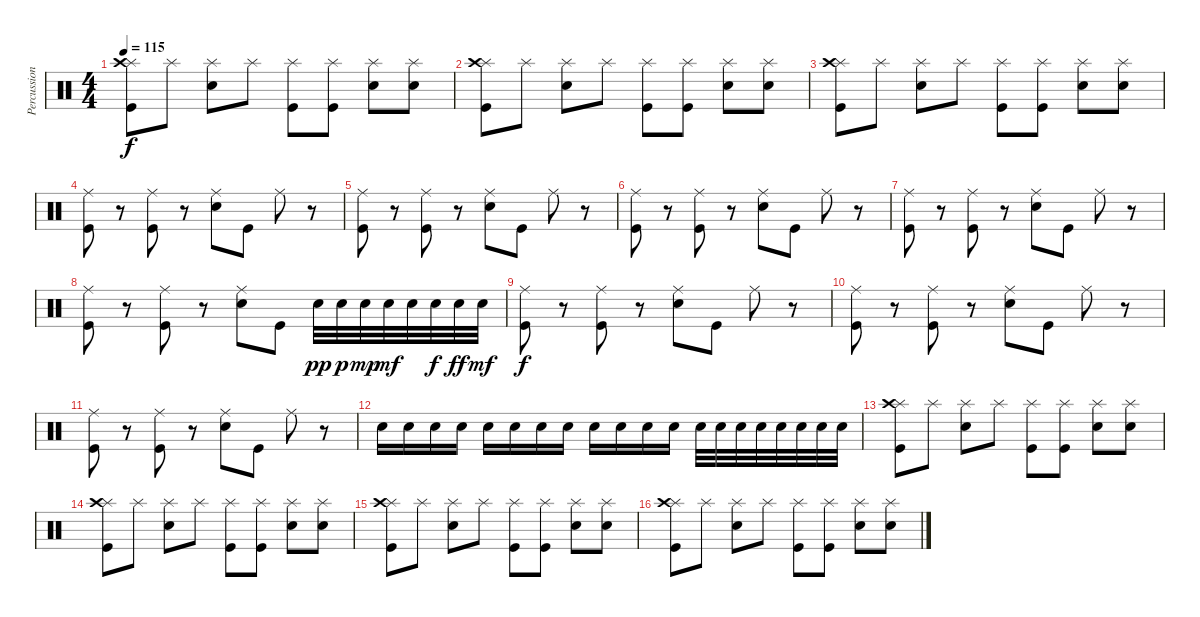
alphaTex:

\track ("Percussions" "Percussion") {instrument percussion}
\staff {score}
\articulation defaults
\ts (4 4)
\tempo 115
\clef neutral
\ks c
("Splash (hit)" "Crash high (hit)" "Kick (hit)").8{dy f} "Splash (hit)".8 ("Splash (hit)" "Electric Snare (hit)").8 "Splash (hit)".8 ("Splash (hit)" "Kick (hit)").8 ("Splash (hit)" "Kick (hit)").8 ("Splash (hit)" "Electric Snare (hit)").8 ("Splash (hit)" "Electric Snare (hit)").8 |
("Splash (hit)" "Crash high (hit)" "Kick (hit)").8 "Splash (hit)".8 ("Splash (hit)" "Electric Snare (hit)").8 "Splash (hit)".8 ("Splash (hit)" "Kick (hit)").8 ("Splash (hit)" "Kick (hit)").8 ("Splash (hit)" "Electric Snare (hit)").8 ("Splash (hit)" "Electric Snare (hit)").8 |
("Splash (hit)" "Crash high (hit)" "Kick (hit)").8 "Splash (hit)".8 ("Splash (hit)" "Electric Snare (hit)").8 "Splash (hit)".8 ("Splash (hit)" "Kick (hit)").8 ("Splash (hit)" "Kick (hit)").8 ("Splash (hit)" "Electric Snare (hit)").8 ("Splash (hit)" "Electric Snare (hit)").8 |
("Ride (middle)" "Kick (hit)").8 r.8 ("Ride (middle)" "Kick (hit)").8 r.8 ("Ride (middle)" "Electric Snare (hit)").8 "Kick (hit)".8 "Ride (middle)".8 r.8 |
("Ride (middle)" "Kick (hit)").8 r.8 ("Ride (middle)" "Kick (hit)").8 r.8 ("Ride (middle)" "Electric Snare (hit)").8 "Kick (hit)".8 "Ride (middle)".8 r.8 |
("Ride (middle)" "Kick (hit)").8 r.8 ("Ride (middle)" "Kick (hit)").8 r.8 ("Ride (middle)" "Electric Snare (hit)").8 "Kick (hit)".8 "Ride (middle)".8 r.8 |
("Ride (middle)" "Kick (hit)").8 r.8 ("Ride (middle)" "Kick (hit)").8 r.8 ("Ride (middle)" "Electric Snare (hit)").8 "Kick (hit)".8 "Ride (middle)".8 r.8 |
("Ride (middle)" "Kick (hit)").8 r.8 ("Ride (middle)" "Kick (hit)").8 r.8 ("Ride (middle)" "Electric Snare (hit)").8 "Kick (hit)".8 "Electric Snare (hit)".32{dy pp} "Electric Snare (hit)".32{dy p} "Electric Snare (hit)".32{dy mp} "Electric Snare (hit)".32{dy mf} "Electric Snare (hit)".32 "Electric Snare (hit)".32{dy f} "Electric Snare (hit)".32{dy ff} "Electric Snare (hit)".32{dy mf} |
("Ride (middle)" "Kick (hit)").8{dy f} r.8 ("Ride (middle)" "Kick (hit)").8 r.8 ("Ride (middle)" "Electric Snare (hit)").8 "Kick (hit)".8 "Ride (middle)".8 r.8 |
("Ride (middle)" "Kick (hit)").8 r.8 ("Ride (middle)" "Kick (hit)").8 r.8 ("Ride (middle)" "Electric Snare (hit)").8 "Kick (hit)".8 "Ride (middle)".8 r.8 |
("Ride (middle)" "Kick (hit)").8 r.8 ("Ride (middle)" "Kick (hit)").8 r.8 ("Ride (middle)" "Electric Snare (hit)").8 "Kick (hit)".8 "Ride (middle)".8 r.8 |
"Electric Snare (hit)".16 "Electric Snare (hit)".16 "Electric Snare (hit)".16 "Electric Snare (hit)".16 "Electric Snare (hit)".16 "Electric Snare (hit)".16 "Electric Snare (hit)".16 "Electric Snare (hit)".16 "Electric Snare (hit)".16 "Electric Snare (hit)".16 "Electric Snare (hit)".16 "Electric Snare (hit)".16 "Electric Snare (hit)".32 "Electric Snare (hit)".32 "Electric Snare (hit)".32 "Electric Snare (hit)".32 "Electric Snare (hit)".32 "Electric Snare (hit)".32 "Electric Snare (hit)".32 "Electric Snare (hit)".32 |
("Splash (hit)" "Crash high (hit)" "Kick (hit)").8 "Splash (hit)".8 ("Splash (hit)" "Electric Snare (hit)").8 "Splash (hit)".8 ("Splash (hit)" "Kick (hit)").8 ("Splash (hit)" "Kick (hit)").8 ("Splash (hit)" "Electric Snare (hit)").8 ("Splash (hit)" "Electric Snare (hit)").8 |
("Splash (hit)" "Crash high (hit)" "Kick (hit)").8 "Splash (hit)".8 ("Splash (hit)" "Electric Snare (hit)").8 "Splash (hit)".8 ("Splash (hit)" "Kick (hit)").8 ("Splash (hit)" "Kick (hit)").8 ("Splash (hit)" "Electric Snare (hit)").8 ("Splash (hit)" "Electric Snare (hit)").8 |
("Splash (hit)" "Crash high (hit)" "Kick (hit)").8 "Splash (hit)".8 ("Splash (hit)" "Electric Snare (hit)").8 "Splash (hit)".8 ("Splash (hit)" "Kick (hit)").8 ("Splash (hit)" "Kick (hit)").8 ("Splash (hit)" "Electric Snare (hit)").8 ("Splash (hit)" "Electric Snare (hit)").8 |
("Splash (hit)" "Crash high (hit)" "Kick (hit)").8 "Splash (hit)".8 ("Splash (hit)" "Electric Snare (hit)").8 "Splash (hit)".8 ("Splash (hit)" "Kick (hit)").8 ("Splash (hit)" "Kick (hit)").8 ("Splash (hit)" "Electric Snare (hit)").8 ("Splash (hit)" "Electric Snare (hit)").8
